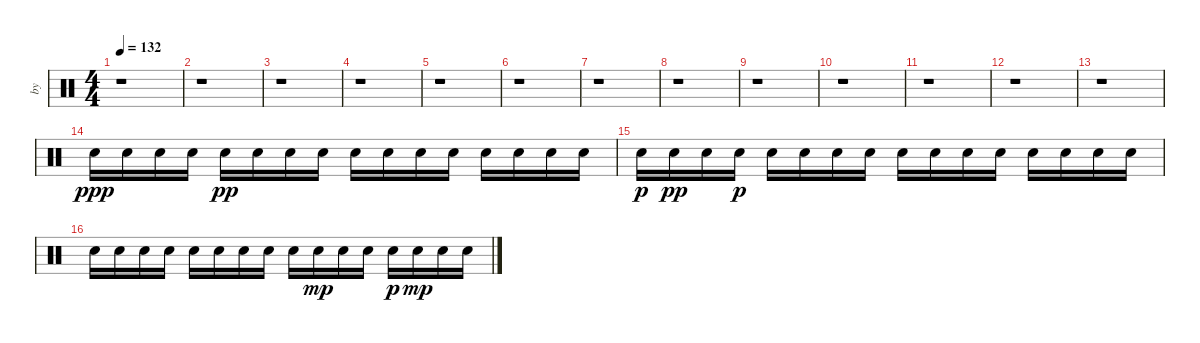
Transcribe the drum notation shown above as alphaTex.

\track ("by" "by") {instrument percussion}
\staff {score}
\articulation defaults
\ts (4 4)
\tempo 132
\clef neutral
\ks c
r.1{dy ppp} |
r.1 |
r.1 |
r.1 |
r.1 |
r.1 |
r.1 |
r.1 |
r.1 |
r.1 |
r.1 |
r.1 |
r.1 |
"Snare (hit) 2".16 "Snare (hit) 2".16 "Snare (hit) 2".16 "Snare (hit) 2".16 "Snare (hit) 2".16{dy pp} "Snare (hit) 2".16 "Snare (hit) 2".16 "Snare (hit) 2".16 "Snare (hit) 2".16 "Snare (hit) 2".16 "Snare (hit) 2".16 "Snare (hit) 2".16 "Snare (hit) 2".16 "Snare (hit) 2".16 "Snare (hit) 2".16 "Snare (hit) 2".16 |
"Snare (hit) 2".16{dy p} "Snare (hit) 2".16{dy pp} "Snare (hit) 2".16 "Snare (hit) 2".16{dy p} "Snare (hit) 2".16 "Snare (hit) 2".16 "Snare (hit) 2".16 "Snare (hit) 2".16 "Snare (hit) 2".16 "Snare (hit) 2".16 "Snare (hit) 2".16 "Snare (hit) 2".16 "Snare (hit) 2".16 "Snare (hit) 2".16 "Snare (hit) 2".16 "Snare (hit) 2".16 |
"Snare (hit) 2".16 "Snare (hit) 2".16 "Snare (hit) 2".16 "Snare (hit) 2".16 "Snare (hit) 2".16 "Snare (hit) 2".16 "Snare (hit) 2".16 "Snare (hit) 2".16 "Snare (hit) 2".16 "Snare (hit) 2".16{dy mp} "Snare (hit) 2".16 "Snare (hit) 2".16 "Snare (hit) 2".16{dy p} "Snare (hit) 2".16{dy mp} "Snare (hit) 2".16 "Snare (hit) 2".16
